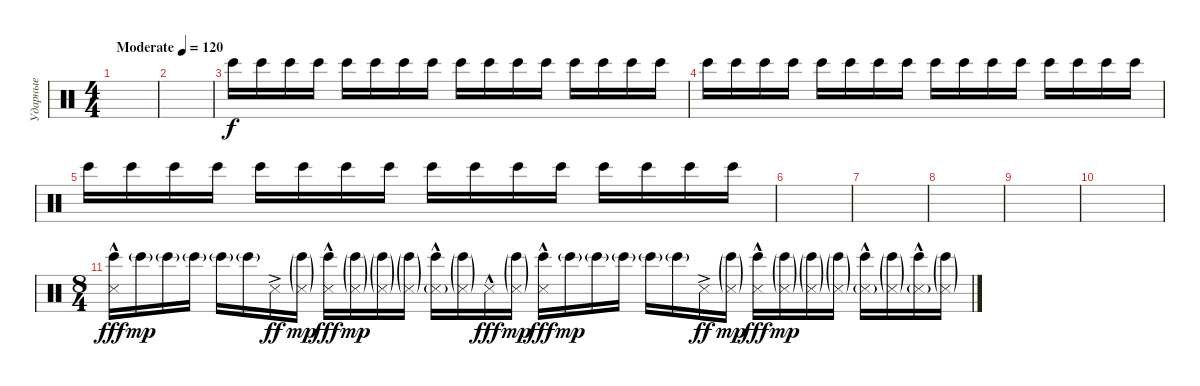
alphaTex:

\track ("Ударные" "Ударные") {instrument percussion}
\staff {score}
\articulation defaults
\ts (4 4)
\tempo (120 "Moderate")
\clef neutral
\ks c
|
|
"Bongo High (hit)".16 "Bongo High (hit)".16 "Bongo High (hit)".16 "Bongo High (hit)".16 "Bongo High (hit)".16 "Bongo High (hit)".16 "Bongo High (hit)".16 "Bongo High (hit)".16 "Bongo High (hit)".16 "Bongo High (hit)".16 "Bongo High (hit)".16 "Bongo High (hit)".16 "Bongo High (hit)".16 "Bongo High (hit)".16 "Bongo High (hit)".16 "Bongo High (hit)".16 |
"Bongo High (hit)".16 "Bongo High (hit)".16 "Bongo High (hit)".16 "Bongo High (hit)".16 "Bongo High (hit)".16 "Bongo High (hit)".16 "Bongo High (hit)".16 "Bongo High (hit)".16 "Bongo High (hit)".16 "Bongo High (hit)".16 "Bongo High (hit)".16 "Bongo High (hit)".16 "Bongo High (hit)".16 "Bongo High (hit)".16 "Bongo High (hit)".16 "Bongo High (hit)".16 |
"Bongo High (hit)".16 "Bongo High (hit)".16 "Bongo High (hit)".16 "Bongo High (hit)".16 "Bongo High (hit)".16 "Bongo High (hit)".16 "Bongo High (hit)".16 "Bongo High (hit)".16 "Bongo High (hit)".16 "Bongo High (hit)".16 "Bongo High (hit)".16 "Bongo High (hit)".16 "Bongo High (hit)".16 "Bongo High (hit)".16 "Bongo High (hit)".16 "Bongo High (hit)".16 |
|
|
|
|
|
\ts (8 4)
("Bongo High (hit)" "Metronome (hit)"{hac}).16{dy fff} "Bongo High (hit)"{g}.16{dy mp} "Bongo High (hit)"{g}.16 "Bongo High (hit)"{g}.16 "Bongo High (hit)"{g}.16 "Bongo High (hit)"{g}.16 "Metronome (hit)"{ac}.16{dy ff} ("Bongo High (hit)"{g} "Metronome (hit)"{g}).16{dy mp} ("Bongo High (hit)"{hac} "Metronome (hit)"{hac}).16{dy fff} ("Bongo High (hit)"{g} "Metronome (hit)"{g}).16{dy mp} ("Bongo High (hit)"{g} "Metronome (hit)"{g}).16 ("Bongo High (hit)"{g} "Metronome (hit)"{g}).16 ("Bongo High (hit)"{hac} "Metronome (hit)"{g}).16 ("Bongo High (hit)"{g} "Metronome (hit)"{g}).16 "Metronome (hit)"{hac}.16{dy fff} ("Bongo High (hit)"{g} "Metronome (hit)"{g}).16{dy mp} ("Bongo High (hit)" "Metronome (hit)"{hac}).16{dy fff} "Bongo High (hit)"{g}.16{dy mp} "Bongo High (hit)"{g}.16 "Bongo High (hit)"{g}.16 "Bongo High (hit)"{g}.16 "Bongo High (hit)"{g}.16 "Metronome (hit)"{ac}.16{dy ff} ("Bongo High (hit)"{g} "Metronome (hit)"{g}).16{dy mp} ("Bongo High (hit)"{hac} "Metronome (hit)"{hac}).16{dy fff} ("Bongo High (hit)"{g} "Metronome (hit)"{g}).16{dy mp} ("Bongo High (hit)"{g} "Metronome (hit)"{g}).16 ("Bongo High (hit)"{g} "Metronome (hit)"{g}).16 ("Bongo High (hit)"{hac} "Metronome (hit)"{g}).16 ("Bongo High (hit)"{g} "Metronome (hit)"{g}).16 ("Bongo High (hit)"{hac} "Metronome (hit)"{g}).16 ("Bongo High (hit)"{g} "Metronome (hit)"{g}).16
